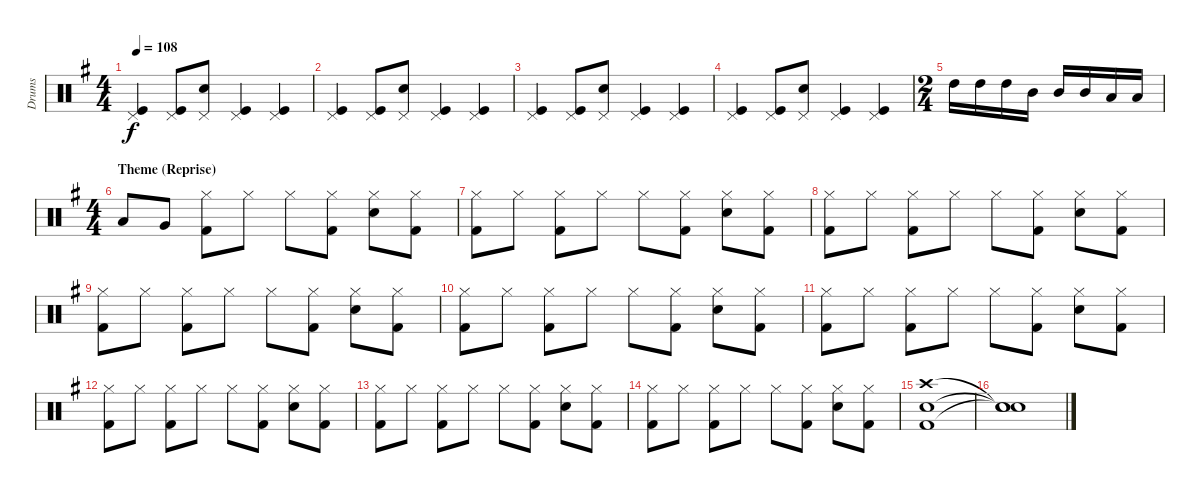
\track ("Drums" "Drums") {instrument percussion}
\staff {score}
\articulation defaults
\ts (4 4)
\tempo 108
\clef neutral
\ks g
("Pedal Hi-Hat (hit)" "Kick (hit)").4{dy f} ("Pedal Hi-Hat (hit)" "Kick (hit)").8 ("Pedal Hi-Hat (hit)" "Electric Snare (hit)").8 ("Pedal Hi-Hat (hit)" "Kick (hit)").4 ("Pedal Hi-Hat (hit)" "Kick (hit)").4 |
("Pedal Hi-Hat (hit)" "Kick (hit)").4 ("Pedal Hi-Hat (hit)" "Kick (hit)").8 ("Pedal Hi-Hat (hit)" "Electric Snare (hit)").8 ("Pedal Hi-Hat (hit)" "Kick (hit)").4 ("Pedal Hi-Hat (hit)" "Kick (hit)").4 |
("Pedal Hi-Hat (hit)" "Kick (hit)").4 ("Pedal Hi-Hat (hit)" "Kick (hit)").8 ("Pedal Hi-Hat (hit)" "Electric Snare (hit)").8 ("Pedal Hi-Hat (hit)" "Kick (hit)").4 ("Pedal Hi-Hat (hit)" "Kick (hit)").4 |
("Pedal Hi-Hat (hit)" "Kick (hit)").4 ("Pedal Hi-Hat (hit)" "Kick (hit)").8 ("Pedal Hi-Hat (hit)" "Electric Snare (hit)").8 ("Pedal Hi-Hat (hit)" "Kick (hit)").4 ("Pedal Hi-Hat (hit)" "Kick (hit)").4 |
\ts (2 4)
"High Tom (hit)".16 "High Tom (hit)".16 "High Tom (hit)".16 "Mid Tom (hit)".16 "Mid Tom (hit)".16 "Mid Tom (hit)".16 "Low Tom (hit)".16 "Low Tom (hit)".16 |
\ts (4 4)
\section ("" "Theme (Reprise)")
"Low Tom (hit)".8 "Very Low Tom (hit)".8 ("Hi-Hat (closed)" "Kick (hit) 2").8 "Hi-Hat (closed)".8 "Hi-Hat (closed)".8 ("Hi-Hat (closed)" "Kick (hit) 2").8 ("Hi-Hat (closed)" "Snare (hit) 2").8 ("Hi-Hat (closed)" "Kick (hit) 2").8 |
("Hi-Hat (closed)" "Kick (hit) 2").8 "Hi-Hat (closed)".8 ("Hi-Hat (closed)" "Kick (hit) 2").8 "Hi-Hat (closed)".8 "Hi-Hat (closed)".8 ("Hi-Hat (closed)" "Kick (hit) 2").8 ("Hi-Hat (closed)" "Snare (hit) 2").8 ("Hi-Hat (closed)" "Kick (hit) 2").8 |
("Hi-Hat (closed)" "Kick (hit) 2").8 "Hi-Hat (closed)".8 ("Hi-Hat (closed)" "Kick (hit) 2").8 "Hi-Hat (closed)".8 "Hi-Hat (closed)".8 ("Hi-Hat (closed)" "Kick (hit) 2").8 ("Hi-Hat (closed)" "Snare (hit) 2").8 ("Hi-Hat (closed)" "Kick (hit) 2").8 |
("Hi-Hat (closed)" "Kick (hit) 2").8 "Hi-Hat (closed)".8 ("Hi-Hat (closed)" "Kick (hit) 2").8 "Hi-Hat (closed)".8 "Hi-Hat (closed)".8 ("Hi-Hat (closed)" "Kick (hit) 2").8 ("Hi-Hat (closed)" "Snare (hit) 2").8 ("Hi-Hat (closed)" "Kick (hit) 2").8 |
("Hi-Hat (closed)" "Kick (hit) 2").8 "Hi-Hat (closed)".8 ("Hi-Hat (closed)" "Kick (hit) 2").8 "Hi-Hat (closed)".8 "Hi-Hat (closed)".8 ("Hi-Hat (closed)" "Kick (hit) 2").8 ("Hi-Hat (closed)" "Snare (hit) 2").8 ("Hi-Hat (closed)" "Kick (hit) 2").8 |
("Hi-Hat (closed)" "Kick (hit) 2").8 "Hi-Hat (closed)".8 ("Hi-Hat (closed)" "Kick (hit) 2").8 "Hi-Hat (closed)".8 "Hi-Hat (closed)".8 ("Hi-Hat (closed)" "Kick (hit) 2").8 ("Hi-Hat (closed)" "Snare (hit) 2").8 ("Hi-Hat (closed)" "Kick (hit) 2").8 |
("Hi-Hat (closed)" "Kick (hit) 2").8 "Hi-Hat (closed)".8 ("Hi-Hat (closed)" "Kick (hit) 2").8 "Hi-Hat (closed)".8 "Hi-Hat (closed)".8 ("Hi-Hat (closed)" "Kick (hit) 2").8 ("Hi-Hat (closed)" "Snare (hit) 2").8 ("Hi-Hat (closed)" "Kick (hit) 2").8 |
("Hi-Hat (closed)" "Kick (hit) 2").8 "Hi-Hat (closed)".8 ("Hi-Hat (closed)" "Kick (hit) 2").8 "Hi-Hat (closed)".8 "Hi-Hat (closed)".8 ("Hi-Hat (closed)" "Kick (hit) 2").8 ("Hi-Hat (closed)" "Snare (hit) 2").8 ("Hi-Hat (closed)" "Kick (hit) 2").8 |
("Hi-Hat (closed)" "Kick (hit) 2").8 "Hi-Hat (closed)".8 ("Hi-Hat (closed)" "Kick (hit) 2").8 "Hi-Hat (closed)".8 "Hi-Hat (closed)".8 ("Hi-Hat (closed)" "Kick (hit) 2").8 ("Hi-Hat (closed)" "Snare (hit) 2").8 ("Hi-Hat (closed)" "Kick (hit) 2").8 |
("Crash high (hit)" "Snare (hit) 2" "Kick (hit) 2").1 |
("Snare (hit)"{t} "Snare (hit)"{t} "Snare (hit)"{t}).1
